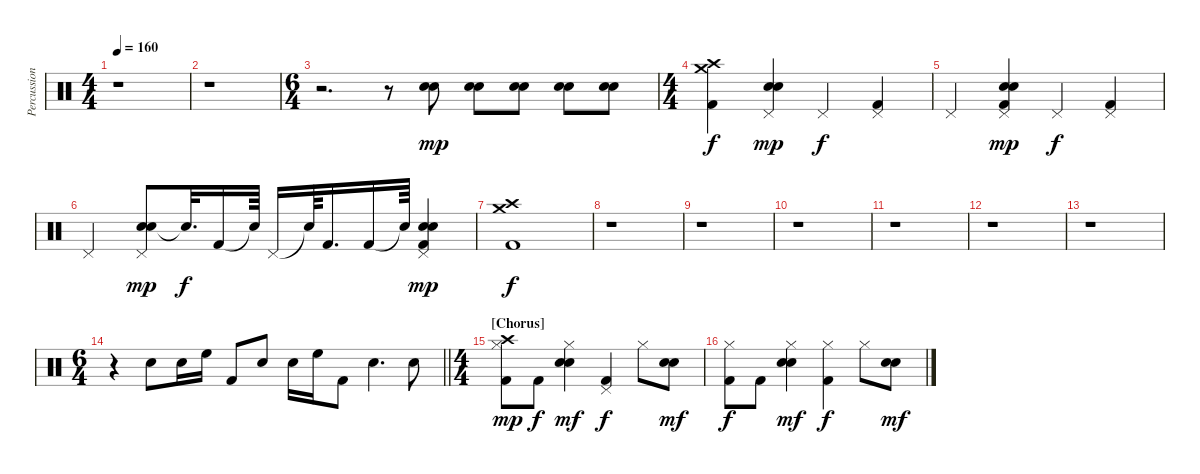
\track ("Percussion" "Percussion") {instrument percussion}
\staff {score}
\articulation defaults
\ts (4 4)
\tempo 160
\clef neutral
\ks c
r.1{dy f} |
r.1 |
\ts (6 4)
r.2{d} r.8 ("Snare (hit) 2" "Electric Snare (hit)").8{dy mp} ("Snare (hit) 2" "Electric Snare (hit)").8 ("Snare (hit) 2" "Electric Snare (hit)").8 ("Snare (hit) 2" "Electric Snare (hit)").8 ("Snare (hit) 2" "Electric Snare (hit)").8 |
\ts (4 4)
("Crash medium (hit)" "Kick (hit) 2" "Crash high (hit)").4{dy f} ("Snare (hit) 2" "Electric Snare (hit)" "Pedal Hi-Hat (hit)").4{dy mp} "Pedal Hi-Hat (hit)".4{dy f} ("Pedal Hi-Hat (hit)" "Kick (hit) 2").4 |
"Pedal Hi-Hat (hit)".4 ("Snare (hit) 2" "Pedal Hi-Hat (hit)" "Kick (hit) 2" "Electric Snare (hit)").4{dy mp} "Pedal Hi-Hat (hit)".4{dy f} ("Kick (hit) 2" "Pedal Hi-Hat (hit)").4 |
"Pedal Hi-Hat (hit)".4 ("Snare (hit) 2" "Electric Snare (hit)" "Pedal Hi-Hat (hit)").8{dy mp} "Snare (hit)"{t}.32{d dy f} "Kick (hit) 2".16 "Snare (hit)"{t}.64 "Pedal Hi-Hat (hit)".16 "Snare (hit)"{t}.64 "Kick (hit) 2".16{d} "Kick (hit) 2".16 "Snare (hit)"{t}.64 ("Snare (hit) 2" "Electric Snare (hit)" "Pedal Hi-Hat (hit)" "Kick (hit) 2").4{dy mp} |
("Kick (hit) 2" "Crash high (hit)" "Crash medium (hit)").1{dy f} |
r.1 |
r.1 |
r.1 |
r.1 |
r.1 |
r.1 |
\ts (6 4)
\barLineRight lightlight
r.4 "Snare (hit) 2".8 "Snare (hit) 2".16 "High Floor Tom (hit)".16 "Kick (hit) 2".8 "Snare (hit) 2".8 "Snare (hit) 2".16 "High Floor Tom (hit)".16 "Kick (hit) 2".8 "Snare (hit) 2".4{d} "Snare (hit) 2".8 |
\ts (4 4)
\section ("" "[Chorus]")
("Hi-Hat (closed)" "Kick (hit) 2" "Crash high (hit)").8{dy mp} "Kick (hit) 2".8{dy f} ("Hi-Hat (closed)" "Snare (hit) 2" "Electric Snare (hit)").4{dy mf} ("Pedal Hi-Hat (hit)" "Kick (hit) 2").4{dy f} "Hi-Hat (closed)".8 ("Snare (hit) 2" "Electric Snare (hit)").8{dy mf} |
("Hi-Hat (closed)" "Kick (hit) 2").8{dy f} "Kick (hit) 2".8 ("Hi-Hat (closed)" "Snare (hit) 2" "Electric Snare (hit)").4{dy mf} ("Hi-Hat (closed)" "Kick (hit) 2").4{dy f} "Hi-Hat (closed)".8 ("Snare (hit) 2" "Electric Snare (hit)").8{dy mf}
